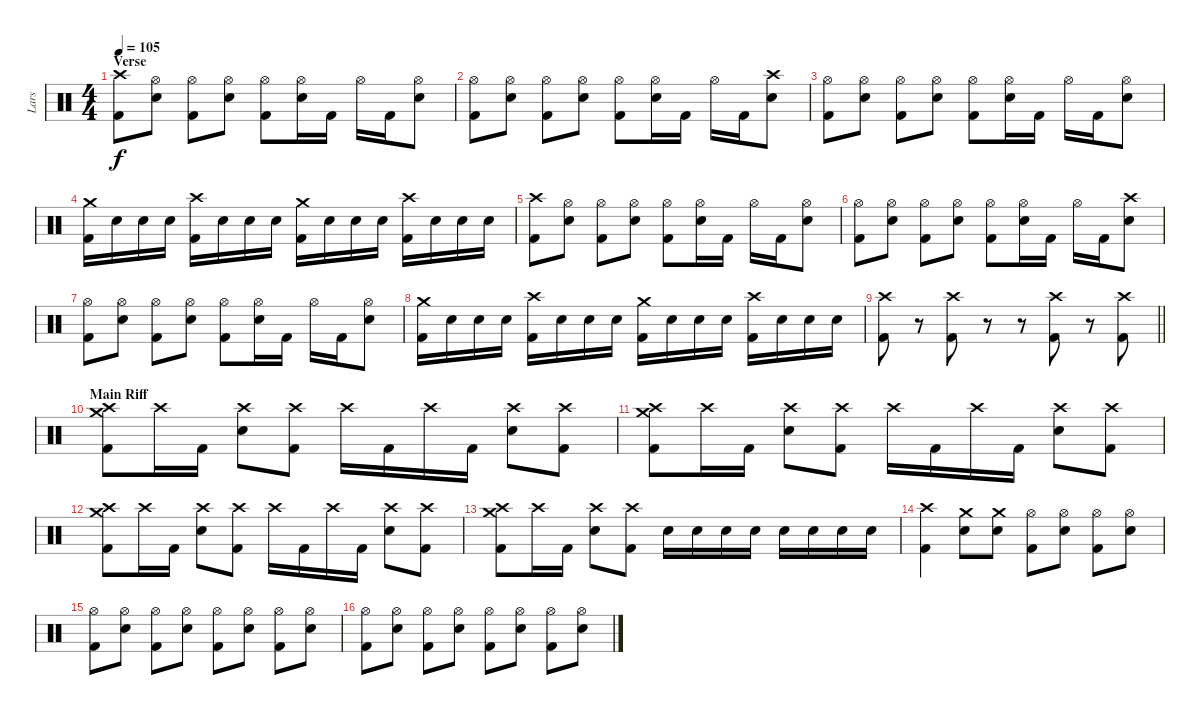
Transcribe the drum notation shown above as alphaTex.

\track ("Lars" "Lars") {instrument percussion}
\staff {score}
\articulation defaults
\ts (4 4)
\section ("" "Verse")
\tempo 105
\clef neutral
\ks c
("Crash high (hit)" "Kick (hit) 2").8{dy f} ("Hi-Hat (open)" "Electric Snare (hit)").8 ("Hi-Hat (open)" "Kick (hit) 2").8 ("Hi-Hat (open)" "Electric Snare (hit)").8 ("Hi-Hat (open)" "Kick (hit) 2").8 ("Hi-Hat (open)" "Electric Snare (hit)").16 "Kick (hit) 2".16 "Hi-Hat (open)".16 "Kick (hit) 2".16 ("Hi-Hat (open)" "Electric Snare (hit)").8 |
("Hi-Hat (open)" "Kick (hit) 2").8 ("Hi-Hat (open)" "Electric Snare (hit)").8 ("Hi-Hat (open)" "Kick (hit) 2").8 ("Hi-Hat (open)" "Electric Snare (hit)").8 ("Hi-Hat (open)" "Kick (hit) 2").8 ("Hi-Hat (open)" "Electric Snare (hit)").16 "Kick (hit) 2".16 "Hi-Hat (open)".16 "Kick (hit) 2".16 ("Crash high (hit)" "Electric Snare (hit)").8 |
("Hi-Hat (open)" "Kick (hit) 2").8 ("Hi-Hat (open)" "Electric Snare (hit)").8 ("Hi-Hat (open)" "Kick (hit) 2").8 ("Hi-Hat (open)" "Electric Snare (hit)").8 ("Hi-Hat (open)" "Kick (hit) 2").8 ("Hi-Hat (open)" "Electric Snare (hit)").16 "Kick (hit) 2".16 "Hi-Hat (open)".16 "Kick (hit) 2".16 ("Hi-Hat (open)" "Electric Snare (hit)").8 |
("Crash medium (hit)" "Kick (hit) 2").16 "Electric Snare (hit)".16 "Electric Snare (hit)".16 "Electric Snare (hit)".16 ("Crash high (hit)" "Kick (hit) 2").16 "Electric Snare (hit)".16 "Electric Snare (hit)".16 "Electric Snare (hit)".16 ("Crash medium (hit)" "Kick (hit) 2").16 "Electric Snare (hit)".16 "Electric Snare (hit)".16 "Electric Snare (hit)".16 ("Crash high (hit)" "Kick (hit) 2").16 "Electric Snare (hit)".16 "Electric Snare (hit)".16 "Electric Snare (hit)".16 |
("Crash high (hit)" "Kick (hit) 2").8 ("Hi-Hat (open)" "Electric Snare (hit)").8 ("Hi-Hat (open)" "Kick (hit) 2").8 ("Hi-Hat (open)" "Electric Snare (hit)").8 ("Hi-Hat (open)" "Kick (hit) 2").8 ("Hi-Hat (open)" "Electric Snare (hit)").16 "Kick (hit) 2".16 "Hi-Hat (open)".16 "Kick (hit) 2".16 ("Hi-Hat (open)" "Electric Snare (hit)").8 |
("Hi-Hat (open)" "Kick (hit) 2").8 ("Hi-Hat (open)" "Electric Snare (hit)").8 ("Hi-Hat (open)" "Kick (hit) 2").8 ("Hi-Hat (open)" "Electric Snare (hit)").8 ("Hi-Hat (open)" "Kick (hit) 2").8 ("Hi-Hat (open)" "Electric Snare (hit)").16 "Kick (hit) 2".16 "Hi-Hat (open)".16 "Kick (hit) 2".16 ("Crash high (hit)" "Electric Snare (hit)").8 |
("Hi-Hat (open)" "Kick (hit) 2").8 ("Hi-Hat (open)" "Electric Snare (hit)").8 ("Hi-Hat (open)" "Kick (hit) 2").8 ("Hi-Hat (open)" "Electric Snare (hit)").8 ("Hi-Hat (open)" "Kick (hit) 2").8 ("Hi-Hat (open)" "Electric Snare (hit)").16 "Kick (hit) 2".16 "Hi-Hat (open)".16 "Kick (hit) 2".16 ("Hi-Hat (open)" "Electric Snare (hit)").8 |
("Crash medium (hit)" "Kick (hit) 2").16 "Electric Snare (hit)".16 "Electric Snare (hit)".16 "Electric Snare (hit)".16 ("Crash high (hit)" "Kick (hit) 2").16 "Electric Snare (hit)".16 "Electric Snare (hit)".16 "Electric Snare (hit)".16 ("Crash medium (hit)" "Kick (hit) 2").16 "Electric Snare (hit)".16 "Electric Snare (hit)".16 "Electric Snare (hit)".16 ("Crash high (hit)" "Kick (hit) 2").16 "Electric Snare (hit)".16 "Electric Snare (hit)".16 "Electric Snare (hit)".16 |
\barLineRight lightlight
("Crash high (hit)" "Kick (hit) 2").8 r.8 ("Crash high (hit)" "Kick (hit) 2").8 r.8 r.8 ("Crash high (hit)" "Kick (hit) 2").8 r.8 ("Crash high (hit)" "Kick (hit) 2").8 |
\section ("" "Main Riff")
("Crash medium (hit)" "Crash high (hit)" "Kick (hit) 2").8 "Crash high (hit)".16 "Kick (hit) 2".16 ("Crash high (hit)" "Electric Snare (hit)").8 ("Crash high (hit)" "Kick (hit) 2").8 "Crash high (hit)".16 "Kick (hit) 2".16 "Crash high (hit)".16 "Kick (hit) 2".16 ("Crash high (hit)" "Electric Snare (hit)").8 ("Crash high (hit)" "Kick (hit) 2").8 |
("Crash high (hit)" "Crash medium (hit)" "Kick (hit) 2").8 "Crash high (hit)".16 "Kick (hit) 2".16 ("Crash high (hit)" "Electric Snare (hit)").8 ("Crash high (hit)" "Kick (hit) 2").8 "Crash high (hit)".16 "Kick (hit) 2".16 "Crash high (hit)".16 "Kick (hit) 2".16 ("Crash high (hit)" "Electric Snare (hit)").8 ("Crash high (hit)" "Kick (hit) 2").8 |
("Crash high (hit)" "Crash medium (hit)" "Kick (hit) 2").8 "Crash high (hit)".16 "Kick (hit) 2".16 ("Crash high (hit)" "Electric Snare (hit)").8 ("Crash high (hit)" "Kick (hit) 2").8 "Crash high (hit)".16 "Kick (hit) 2".16 "Crash high (hit)".16 "Kick (hit) 2".16 ("Crash high (hit)" "Electric Snare (hit)").8 ("Crash high (hit)" "Kick (hit) 2").8 |
("Crash high (hit)" "Crash medium (hit)" "Kick (hit) 2").8 "Crash high (hit)".16 "Kick (hit) 2".16 ("Crash high (hit)" "Electric Snare (hit)").8 ("Crash high (hit)" "Kick (hit) 2").8 "Electric Snare (hit)".16 "Electric Snare (hit)".16 "Electric Snare (hit)".16 "Electric Snare (hit)".16 "Electric Snare (hit)".16 "Electric Snare (hit)".16 "Electric Snare (hit)".16 "Electric Snare (hit)".16 |
("Crash high (hit)" "Kick (hit) 2").4 ("Crash medium (hit)" "Electric Snare (hit)").8 ("Crash medium (hit)" "Electric Snare (hit)").8 ("Hi-Hat (open)" "Kick (hit) 2").8 ("Hi-Hat (open)" "Electric Snare (hit)").8 ("Hi-Hat (open)" "Kick (hit) 2").8 ("Hi-Hat (open)" "Electric Snare (hit)").8 |
("Hi-Hat (open)" "Kick (hit) 2").8 ("Hi-Hat (open)" "Electric Snare (hit)").8 ("Hi-Hat (open)" "Kick (hit) 2").8 ("Hi-Hat (open)" "Electric Snare (hit)").8 ("Hi-Hat (open)" "Kick (hit) 2").8 ("Hi-Hat (open)" "Electric Snare (hit)").8 ("Hi-Hat (open)" "Kick (hit) 2").8 ("Hi-Hat (open)" "Electric Snare (hit)").8 |
("Hi-Hat (open)" "Kick (hit) 2").8 ("Hi-Hat (open)" "Electric Snare (hit)").8 ("Hi-Hat (open)" "Kick (hit) 2").8 ("Hi-Hat (open)" "Electric Snare (hit)").8 ("Hi-Hat (open)" "Kick (hit) 2").8 ("Hi-Hat (open)" "Electric Snare (hit)").8 ("Hi-Hat (open)" "Kick (hit) 2").8 ("Hi-Hat (open)" "Electric Snare (hit)").8
